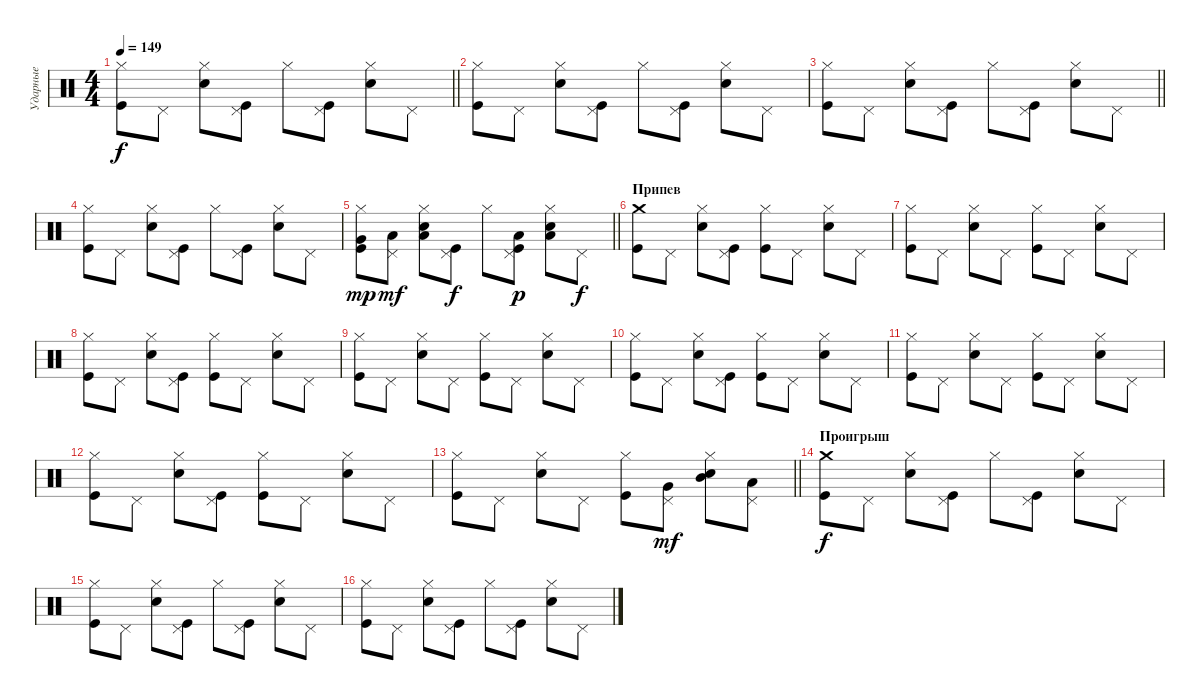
\track ("Ударные" "Ударные") {instrument percussion}
\staff {score}
\articulation defaults
\ts (4 4)
\tempo 149
\clef neutral
\barLineRight lightlight
\ks c
("Hi-Hat (closed)" "Kick (hit)").8{dy f} "Pedal Hi-Hat (hit)".8 ("Hi-Hat (closed)" "Snare (hit) 2").8 ("Pedal Hi-Hat (hit)" "Kick (hit)").8 "Hi-Hat (closed)".8 ("Pedal Hi-Hat (hit)" "Kick (hit)").8 ("Hi-Hat (closed)" "Snare (hit) 2").8 "Pedal Hi-Hat (hit)".8 |
("Hi-Hat (closed)" "Kick (hit)").8 "Pedal Hi-Hat (hit)".8 ("Hi-Hat (closed)" "Snare (hit) 2").8 ("Pedal Hi-Hat (hit)" "Kick (hit)").8 "Hi-Hat (closed)".8 ("Pedal Hi-Hat (hit)" "Kick (hit)").8 ("Hi-Hat (closed)" "Snare (hit) 2").8 "Pedal Hi-Hat (hit)".8 |
\barLineRight lightlight
("Hi-Hat (closed)" "Kick (hit)").8 "Pedal Hi-Hat (hit)".8 ("Hi-Hat (closed)" "Snare (hit) 2").8 ("Pedal Hi-Hat (hit)" "Kick (hit)").8 "Hi-Hat (closed)".8 ("Pedal Hi-Hat (hit)" "Kick (hit)").8 ("Hi-Hat (closed)" "Snare (hit) 2").8 "Pedal Hi-Hat (hit)".8 |
("Hi-Hat (closed)" "Kick (hit)").8 "Pedal Hi-Hat (hit)".8 ("Hi-Hat (closed)" "Snare (hit) 2").8 ("Pedal Hi-Hat (hit)" "Kick (hit)").8 "Hi-Hat (closed)".8 ("Pedal Hi-Hat (hit)" "Kick (hit)").8 ("Hi-Hat (closed)" "Snare (hit) 2").8 "Pedal Hi-Hat (hit)".8 |
\barLineRight lightlight
("Hi-Hat (closed)" "Kick (hit)" "Very Low Tom (hit)").8{dy mp} ("Pedal Hi-Hat (hit)" "Low Floor Tom (hit)").8{dy mf} ("Hi-Hat (closed)" "Snare (hit) 2" "Low Tom (hit)").8 ("Pedal Hi-Hat (hit)" "Kick (hit)").8{dy f} "Hi-Hat (closed)".8 ("Pedal Hi-Hat (hit)" "Kick (hit)" "Low Floor Tom (hit)").8{dy p} ("Hi-Hat (closed)" "Snare (hit) 2" "Low Floor Tom (hit)").8 "Pedal Hi-Hat (hit)".8{dy f} |
\section ("" "Припев")
("Crash medium (hit)" "Kick (hit)").8 "Pedal Hi-Hat (hit)".8 ("Hi-Hat (closed)" "Snare (hit) 2").8 ("Pedal Hi-Hat (hit)" "Kick (hit)").8 ("Hi-Hat (closed)" "Kick (hit)").8 "Pedal Hi-Hat (hit)".8 ("Hi-Hat (closed)" "Snare (hit) 2").8 "Pedal Hi-Hat (hit)".8 |
("Hi-Hat (closed)" "Kick (hit)").8 "Pedal Hi-Hat (hit)".8 ("Hi-Hat (closed)" "Snare (hit) 2").8 "Pedal Hi-Hat (hit)".8 ("Hi-Hat (closed)" "Kick (hit)").8 "Pedal Hi-Hat (hit)".8 ("Hi-Hat (closed)" "Snare (hit) 2").8 "Pedal Hi-Hat (hit)".8 |
("Hi-Hat (closed)" "Kick (hit)").8 "Pedal Hi-Hat (hit)".8 ("Hi-Hat (closed)" "Snare (hit) 2").8 ("Pedal Hi-Hat (hit)" "Kick (hit)").8 ("Hi-Hat (closed)" "Kick (hit)").8 "Pedal Hi-Hat (hit)".8 ("Hi-Hat (closed)" "Snare (hit) 2").8 "Pedal Hi-Hat (hit)".8 |
("Hi-Hat (closed)" "Kick (hit)").8 "Pedal Hi-Hat (hit)".8 ("Hi-Hat (closed)" "Snare (hit) 2").8 "Pedal Hi-Hat (hit)".8 ("Hi-Hat (closed)" "Kick (hit)").8 "Pedal Hi-Hat (hit)".8 ("Hi-Hat (closed)" "Snare (hit) 2").8 "Pedal Hi-Hat (hit)".8 |
("Hi-Hat (closed)" "Kick (hit)").8 "Pedal Hi-Hat (hit)".8 ("Hi-Hat (closed)" "Snare (hit) 2").8 ("Pedal Hi-Hat (hit)" "Kick (hit)").8 ("Hi-Hat (closed)" "Kick (hit)").8 "Pedal Hi-Hat (hit)".8 ("Hi-Hat (closed)" "Snare (hit) 2").8 "Pedal Hi-Hat (hit)".8 |
("Hi-Hat (closed)" "Kick (hit)").8 "Pedal Hi-Hat (hit)".8 ("Hi-Hat (closed)" "Snare (hit) 2").8 "Pedal Hi-Hat (hit)".8 ("Hi-Hat (closed)" "Kick (hit)").8 "Pedal Hi-Hat (hit)".8 ("Hi-Hat (closed)" "Snare (hit) 2").8 "Pedal Hi-Hat (hit)".8 |
("Hi-Hat (closed)" "Kick (hit)").8 "Pedal Hi-Hat (hit)".8 ("Hi-Hat (closed)" "Snare (hit) 2").8 ("Pedal Hi-Hat (hit)" "Kick (hit)").8 ("Hi-Hat (closed)" "Kick (hit)").8 "Pedal Hi-Hat (hit)".8 ("Hi-Hat (closed)" "Snare (hit) 2").8 "Pedal Hi-Hat (hit)".8 |
\barLineRight lightlight
("Hi-Hat (closed)" "Kick (hit)").8 "Pedal Hi-Hat (hit)".8 ("Hi-Hat (closed)" "Snare (hit) 2").8 "Pedal Hi-Hat (hit)".8 ("Hi-Hat (closed)" "Kick (hit)").8 ("Pedal Hi-Hat (hit)" "Very Low Tom (hit)").8{dy mf} ("Hi-Hat (closed)" "Snare (hit) 2" "Mid Tom (hit)").8 ("Pedal Hi-Hat (hit)" "Low Tom (hit)").8 |
\section ("" "Проигрыш")
("Crash medium (hit)" "Kick (hit)").8{dy f} "Pedal Hi-Hat (hit)".8 ("Hi-Hat (closed)" "Snare (hit) 2").8 ("Pedal Hi-Hat (hit)" "Kick (hit)").8 "Hi-Hat (closed)".8 ("Pedal Hi-Hat (hit)" "Kick (hit)").8 ("Hi-Hat (closed)" "Snare (hit) 2").8 "Pedal Hi-Hat (hit)".8 |
("Hi-Hat (closed)" "Kick (hit)").8 "Pedal Hi-Hat (hit)".8 ("Hi-Hat (closed)" "Snare (hit) 2").8 ("Pedal Hi-Hat (hit)" "Kick (hit)").8 "Hi-Hat (closed)".8 ("Pedal Hi-Hat (hit)" "Kick (hit)").8 ("Hi-Hat (closed)" "Snare (hit) 2").8 "Pedal Hi-Hat (hit)".8 |
("Hi-Hat (closed)" "Kick (hit)").8 "Pedal Hi-Hat (hit)".8 ("Hi-Hat (closed)" "Snare (hit) 2").8 ("Pedal Hi-Hat (hit)" "Kick (hit)").8 "Hi-Hat (closed)".8 ("Pedal Hi-Hat (hit)" "Kick (hit)").8 ("Hi-Hat (closed)" "Snare (hit) 2").8 "Pedal Hi-Hat (hit)".8
